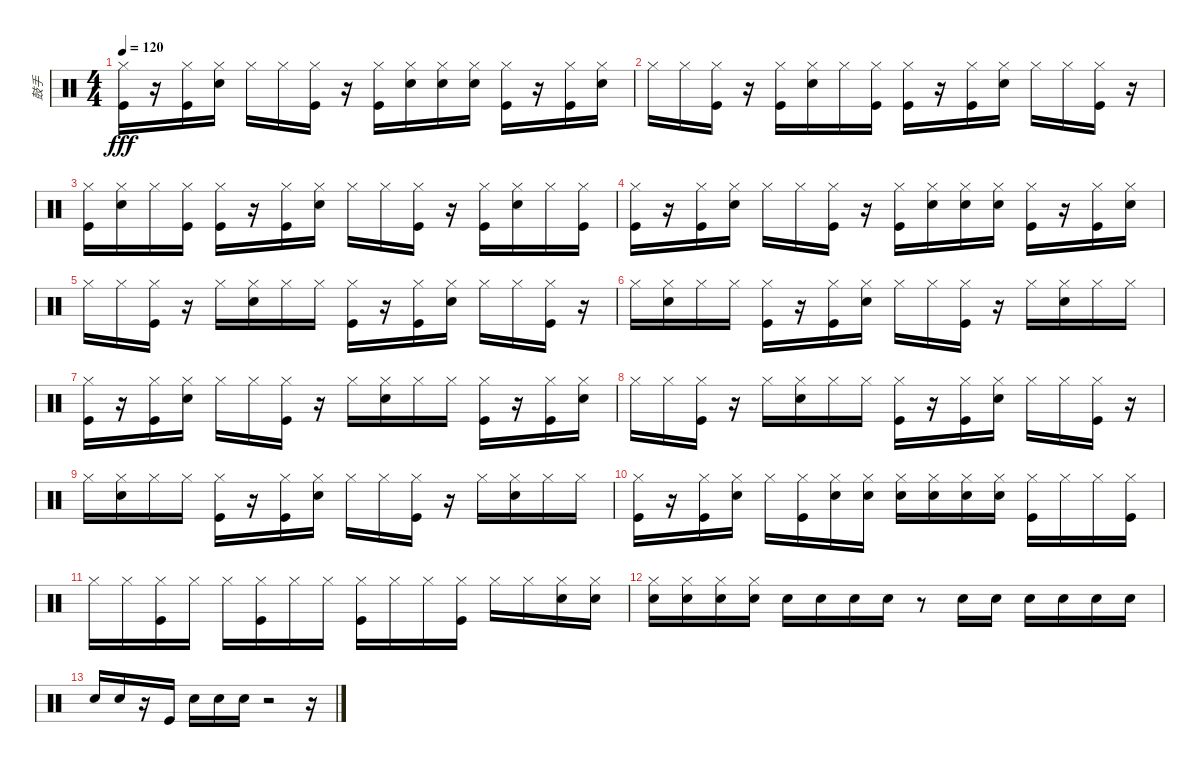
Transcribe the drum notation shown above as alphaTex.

\track ("鼓手" "鼓手") {instrument percussion}
\staff {score}
\articulation defaults
\ts (4 4)
\tempo 120
\clef neutral
\ks c
("Kick (hit)" "Hi-Hat (closed)").16{dy fff} r.16 ("Kick (hit)" "Hi-Hat (closed)").16 ("Snare (hit) 2" "Hi-Hat (closed)").16 "Hi-Hat (closed)".16 "Hi-Hat (closed)".16 ("Kick (hit)" "Hi-Hat (closed)").16 r.16 ("Kick (hit)" "Hi-Hat (closed)").16 ("Snare (hit) 2" "Hi-Hat (closed)").16 ("Snare (hit) 2" "Hi-Hat (closed)").16 ("Snare (hit) 2" "Hi-Hat (closed)").16 ("Kick (hit)" "Hi-Hat (closed)").16 r.16 ("Kick (hit)" "Hi-Hat (closed)").16 ("Snare (hit) 2" "Hi-Hat (closed)").16 |
"Hi-Hat (closed)".16 "Hi-Hat (closed)".16 ("Kick (hit)" "Hi-Hat (closed)").16 r.16 ("Kick (hit)" "Hi-Hat (closed)").16 ("Snare (hit) 2" "Hi-Hat (closed)").16 "Hi-Hat (closed)".16 ("Kick (hit)" "Hi-Hat (closed)").16 ("Kick (hit)" "Hi-Hat (closed)").16 r.16 ("Kick (hit)" "Hi-Hat (closed)").16 ("Snare (hit) 2" "Hi-Hat (closed)").16 "Hi-Hat (closed)".16 "Hi-Hat (closed)".16 ("Kick (hit)" "Hi-Hat (closed)").16 r.16 |
("Kick (hit)" "Hi-Hat (closed)").16 ("Snare (hit) 2" "Hi-Hat (closed)").16 "Hi-Hat (closed)".16 ("Kick (hit)" "Hi-Hat (closed)").16 ("Kick (hit)" "Hi-Hat (closed)").16 r.16 ("Kick (hit)" "Hi-Hat (closed)").16 ("Snare (hit) 2" "Hi-Hat (closed)").16 "Hi-Hat (closed)".16 "Hi-Hat (closed)".16 ("Kick (hit)" "Hi-Hat (closed)").16 r.16 ("Kick (hit)" "Hi-Hat (closed)").16 ("Snare (hit) 2" "Hi-Hat (closed)").16 "Hi-Hat (closed)".16 ("Kick (hit)" "Hi-Hat (closed)").16 |
("Kick (hit)" "Hi-Hat (closed)").16 r.16 ("Kick (hit)" "Hi-Hat (closed)").16 ("Snare (hit) 2" "Hi-Hat (closed)").16 "Hi-Hat (closed)".16 "Hi-Hat (closed)".16 ("Kick (hit)" "Hi-Hat (closed)").16 r.16 ("Kick (hit)" "Hi-Hat (closed)").16 ("Snare (hit) 2" "Hi-Hat (closed)").16 ("Snare (hit) 2" "Hi-Hat (closed)").16 ("Snare (hit) 2" "Hi-Hat (closed)").16 ("Kick (hit)" "Hi-Hat (closed)").16 r.16 ("Kick (hit)" "Hi-Hat (closed)").16 ("Snare (hit) 2" "Hi-Hat (closed)").16 |
"Hi-Hat (closed)".16 "Hi-Hat (closed)".16 ("Kick (hit)" "Hi-Hat (closed)").16 r.16 "Hi-Hat (closed)".16 ("Snare (hit) 2" "Hi-Hat (closed)").16 "Hi-Hat (closed)".16 "Hi-Hat (closed)".16 ("Kick (hit)" "Hi-Hat (closed)").16 r.16 ("Kick (hit)" "Hi-Hat (closed)").16 ("Snare (hit) 2" "Hi-Hat (closed)").16 "Hi-Hat (closed)".16 "Hi-Hat (closed)".16 ("Kick (hit)" "Hi-Hat (closed)").16 r.16 |
"Hi-Hat (closed)".16 ("Snare (hit) 2" "Hi-Hat (closed)").16 "Hi-Hat (closed)".16 "Hi-Hat (closed)".16 ("Kick (hit)" "Hi-Hat (closed)").16 r.16 ("Kick (hit)" "Hi-Hat (closed)").16 ("Snare (hit) 2" "Hi-Hat (closed)").16 "Hi-Hat (closed)".16 "Hi-Hat (closed)".16 ("Kick (hit)" "Hi-Hat (closed)").16 r.16 "Hi-Hat (closed)".16 ("Snare (hit) 2" "Hi-Hat (closed)").16 "Hi-Hat (closed)".16 "Hi-Hat (closed)".16 |
("Kick (hit)" "Hi-Hat (closed)").16 r.16 ("Kick (hit)" "Hi-Hat (closed)").16 ("Snare (hit) 2" "Hi-Hat (closed)").16 "Hi-Hat (closed)".16 "Hi-Hat (closed)".16 ("Kick (hit)" "Hi-Hat (closed)").16 r.16 "Hi-Hat (closed)".16 ("Snare (hit) 2" "Hi-Hat (closed)").16 "Hi-Hat (closed)".16 "Hi-Hat (closed)".16 ("Kick (hit)" "Hi-Hat (closed)").16 r.16 ("Kick (hit)" "Hi-Hat (closed)").16 ("Snare (hit) 2" "Hi-Hat (closed)").16 |
"Hi-Hat (closed)".16 "Hi-Hat (closed)".16 ("Kick (hit)" "Hi-Hat (closed)").16 r.16 "Hi-Hat (closed)".16 ("Snare (hit) 2" "Hi-Hat (closed)").16 "Hi-Hat (closed)".16 "Hi-Hat (closed)".16 ("Kick (hit)" "Hi-Hat (closed)").16 r.16 ("Kick (hit)" "Hi-Hat (closed)").16 ("Snare (hit) 2" "Hi-Hat (closed)").16 "Hi-Hat (closed)".16 "Hi-Hat (closed)".16 ("Kick (hit)" "Hi-Hat (closed)").16 r.16 |
"Hi-Hat (closed)".16 ("Snare (hit) 2" "Hi-Hat (closed)").16 "Hi-Hat (closed)".16 "Hi-Hat (closed)".16 ("Kick (hit)" "Hi-Hat (closed)").16 r.16 ("Kick (hit)" "Hi-Hat (closed)").16 ("Snare (hit) 2" "Hi-Hat (closed)").16 "Hi-Hat (closed)".16 "Hi-Hat (closed)".16 ("Kick (hit)" "Hi-Hat (closed)").16 r.16 "Hi-Hat (closed)".16 ("Snare (hit) 2" "Hi-Hat (closed)").16 "Hi-Hat (closed)".16 "Hi-Hat (closed)".16 |
("Kick (hit)" "Hi-Hat (closed)").16 r.16 ("Kick (hit)" "Hi-Hat (closed)").16 ("Snare (hit) 2" "Hi-Hat (closed)").16 "Hi-Hat (closed)".16 ("Kick (hit)" "Hi-Hat (closed)").16 ("Snare (hit) 2" "Hi-Hat (closed)").16 ("Snare (hit) 2" "Hi-Hat (closed)").16 ("Snare (hit) 2" "Hi-Hat (closed)").16 ("Snare (hit) 2" "Hi-Hat (closed)").16 ("Snare (hit) 2" "Hi-Hat (closed)").16 ("Snare (hit) 2" "Hi-Hat (closed)").16 ("Kick (hit)" "Hi-Hat (closed)").16 "Hi-Hat (closed)".16 "Hi-Hat (closed)".16 ("Kick (hit)" "Hi-Hat (closed)").16 |
"Hi-Hat (closed)".16 "Hi-Hat (closed)".16 ("Kick (hit)" "Hi-Hat (closed)").16 "Hi-Hat (closed)".16 "Hi-Hat (closed)".16 ("Kick (hit)" "Hi-Hat (closed)").16 "Hi-Hat (closed)".16 "Hi-Hat (closed)".16 ("Kick (hit)" "Hi-Hat (closed)").16 "Hi-Hat (closed)".16 "Hi-Hat (closed)".16 ("Kick (hit)" "Hi-Hat (closed)").16 "Hi-Hat (closed)".16 "Hi-Hat (closed)".16 ("Snare (hit) 2" "Hi-Hat (closed)").16 ("Snare (hit) 2" "Hi-Hat (closed)").16 |
("Snare (hit) 2" "Hi-Hat (closed)").16 ("Snare (hit) 2" "Hi-Hat (closed)").16 ("Snare (hit) 2" "Hi-Hat (closed)").16 ("Snare (hit) 2" "Hi-Hat (closed)").16 "Snare (hit) 2".16 "Snare (hit) 2".16 "Snare (hit) 2".16 "Snare (hit) 2".16 r.8 "Snare (hit) 2".16 "Snare (hit) 2".16 "Snare (hit) 2".16 "Snare (hit) 2".16 "Snare (hit) 2".16 "Snare (hit) 2".16 |
"Snare (hit) 2".16 "Snare (hit) 2".16 r.16 "Kick (hit)".16 "Snare (hit) 2".16 "Snare (hit) 2".16 "Snare (hit) 2".16 r.2 r.16
